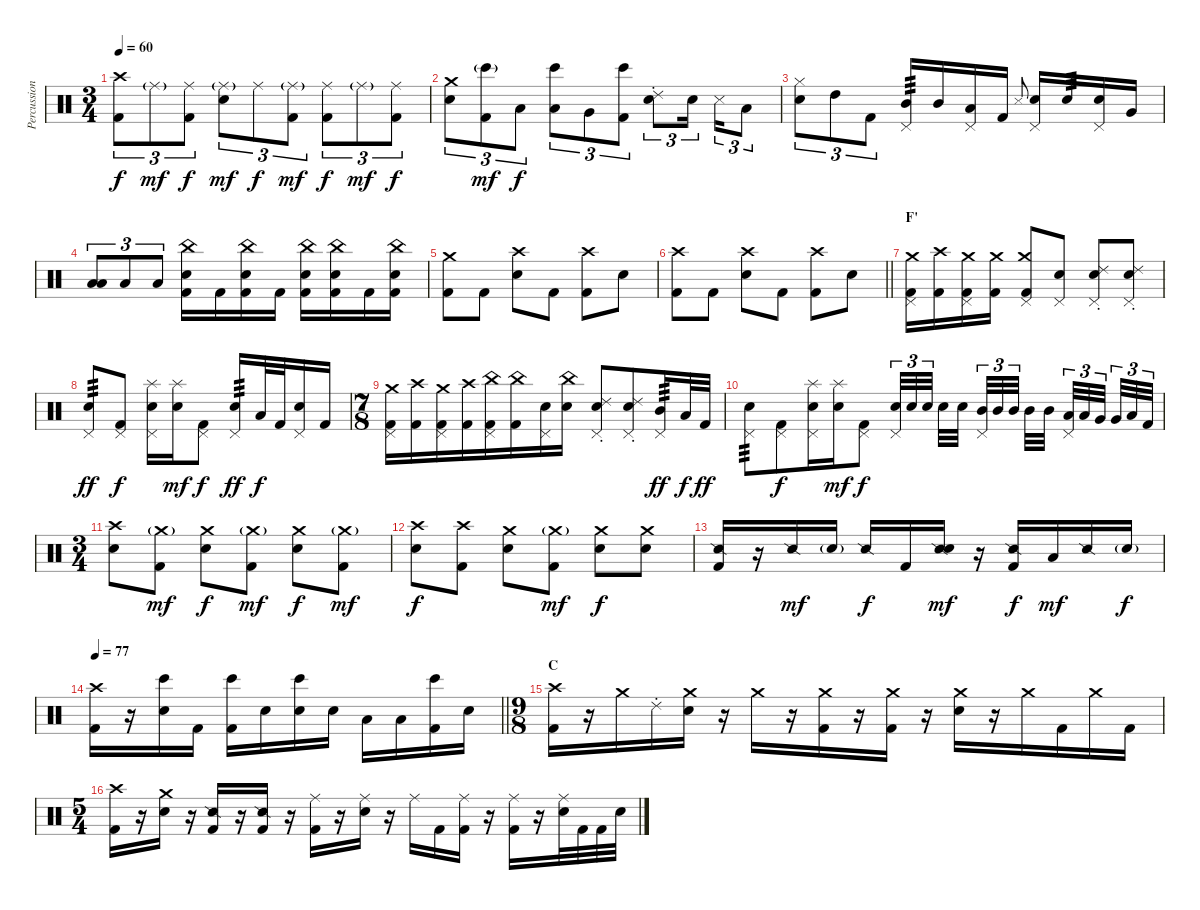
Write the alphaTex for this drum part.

\track ("Percussion" "Percussion") {instrument percussion}
\staff {score}
\articulation defaults
\ts (3 4)
\tempo 60
\clef neutral
\ks c
("Crash high (hit)" "Kick (hit) 2").8{tu (3 2) dy f} "Ride (middle)"{g}.8{tu (3 2) dy mf} ("Ride (middle)" "Kick (hit) 2").8{tu (3 2) dy f} ("Ride (middle)"{g} "Snare (hit) 2").8{tu (3 2) dy mf} "Ride (middle)".8{tu (3 2) dy f} ("Ride (middle)"{g} "Kick (hit) 2").8{tu (3 2) dy mf} ("Ride (middle)" "Kick (hit) 2").8{tu (3 2) dy f} "Ride (middle)"{g}.8{tu (3 2) dy mf} ("Ride (middle)" "Kick (hit) 2").8{tu (3 2) dy f} |
("Crash medium (hit)" "Snare (hit) 2").8{tu (3 2)} ("Bongo High (hit)"{g} "Kick (hit) 2").8{tu (3 2) dy mf} "Low Tom (hit)".8{tu (3 2) dy f} ("Bongo High (hit)" "Low Tom (hit)").8{tu (3 2)} "Very Low Tom (hit)".8{tu (3 2)} ("Bongo High (hit)" "Kick (hit) 2").8{tu (3 2)} ("Ride (choke) 2" "Snare (hit) 2").8{tu (3 2)} "Snare (hit) 2".16{tu (3 2) beam splitsecondary} "Metronome (hit)".16{tu (3 2)} "Low Tom (hit)".8{tu (3 2)} |
("Hi-Hat (closed)" "Snare (hit) 2").8{tu (3 2)} "High Tom (hit)".8{tu (3 2)} "Kick (hit) 2".8{tu (3 2)} ("Pedal Hi-Hat (hit)" "Mid Tom (hit)").16{tp 3} "Mid Tom (hit)".16 ("Pedal Hi-Hat (hit)" "Low Tom (hit)").16 "Kick (hit) 2".16 "Metronome (hit)".8{gr onbeat} ("Pedal Hi-Hat (hit)" "Snare (hit) 2").16 "Snare (hit) 2".16{tp 3} ("Pedal Hi-Hat (hit)" "Snare (hit) 2").16 "Very Low Tom (hit)".16 |
("Low Floor Tom (hit)" "Low Floor Tom (hit)").8{tu (3 2) bu 480} "Low Floor Tom (hit)".8{tu (3 2)} "Low Floor Tom (hit)".8{tu (3 2)} ("China (hit)" "Snare (hit) 2" "Kick (hit) 2").16 "Kick (hit) 2".16 ("China (hit)" "Snare (hit) 2" "Kick (hit) 2").16 "Kick (hit) 2".16 ("China (hit)" "Snare (hit) 2" "Kick (hit) 2").16 ("China (hit)" "Snare (hit) 2" "Kick (hit) 2").16 "Kick (hit) 2".16 ("China (hit)" "Snare (hit) 2" "Kick (hit) 2").16 |
("Crash medium (hit)" "Kick (hit) 2").8 "Kick (hit) 2".8 ("Crash high (hit)" "Snare (hit) 2").8 "Kick (hit) 2".8 ("Crash high (hit)" "Kick (hit) 2").8 "Snare (hit) 2".8 |
\barLineRight lightlight
("Crash high (hit)" "Kick (hit) 2").8 "Kick (hit) 2".8 ("Crash high (hit)" "Snare (hit) 2").8 "Kick (hit) 2".8 ("Crash high (hit)" "Kick (hit) 2").8 "Snare (hit) 2".8 |
\section ("" "F'")
("Crash medium (hit)" "Pedal Hi-Hat (hit)" "Kick (hit) 2").16 ("Crash high (hit)" "Kick (hit) 2").16 ("Crash medium (hit)" "Pedal Hi-Hat (hit)" "Kick (hit) 2").16 ("Crash medium (hit)" "Kick (hit) 2").16 ("Crash medium (hit)" "Pedal Hi-Hat (hit)" "Kick (hit) 2").8 ("Pedal Hi-Hat (hit)" "Snare (hit) 2").8 ("Ride (choke) 2" "Pedal Hi-Hat (hit)" "Snare (hit) 2").8 ("Ride (choke) 2" "Pedal Hi-Hat (hit)" "Snare (hit) 2").8 |
("Pedal Hi-Hat (hit)" "Snare (hit) 2").8{tp 3 dy ff} ("Pedal Hi-Hat (hit)" "Kick (hit) 2").8{dy f} ("Splash (hit)" "Pedal Hi-Hat (hit)" "Snare (hit) 2").16 ("Splash (hit)" "Snare (hit) 2").16{dy mf} ("Pedal Hi-Hat (hit)" "Kick (hit) 2").8{dy f} ("Pedal Hi-Hat (hit)" "Snare (hit) 2").16{tp 3 dy ff} "Low Tom (hit)".32{dy f} "Kick (hit) 2".32 ("Pedal Hi-Hat (hit)" "Snare (hit) 2").16 "Kick (hit) 2".16 |
\ts (7 8)
("Crash medium (hit)" "Pedal Hi-Hat (hit)" "Kick (hit) 2").16 ("Crash high (hit)" "Kick (hit) 2").16 ("Crash medium (hit)" "Pedal Hi-Hat (hit)" "Kick (hit) 2").16 ("Crash high (hit)" "Kick (hit) 2").16 ("China (hit)" "Pedal Hi-Hat (hit)" "Kick (hit) 2").16 ("China (hit)" "Kick (hit) 2").16 ("Pedal Hi-Hat (hit)" "Snare (hit) 2").16 ("China (hit)" "Snare (hit) 2").16 ("Ride (choke) 2" "Pedal Hi-Hat (hit)" "Snare (hit) 2").8 ("Ride (choke) 2" "Pedal Hi-Hat (hit)" "Snare (hit) 2").8 ("Pedal Hi-Hat (hit)" "Mid Tom (hit)").16{tp 3 dy ff} "Low Tom (hit)".32{dy f} "Kick (hit) 2".32{dy ff} |
("Pedal Hi-Hat (hit)" "Snare (hit) 2").8{tp 3} ("Pedal Hi-Hat (hit)" "Kick (hit) 2").8{dy f} ("Splash (hit)" "Pedal Hi-Hat (hit)" "Snare (hit) 2").16 ("Splash (hit)" "Snare (hit) 2").16{dy mf} ("Pedal Hi-Hat (hit)" "Kick (hit) 2").8{dy f} ("Pedal Hi-Hat (hit)" "Snare (hit) 2").32{tu (3 2)} "Snare (hit) 2".32{tu (3 2)} "Snare (hit) 2".32{tu (3 2) beam splitsecondary} "Snare (hit) 2".32 "Snare (hit) 2".32 ("Pedal Hi-Hat (hit)" "Mid Tom (hit)").32{tu (3 2)} "Mid Tom (hit)".32{tu (3 2)} "Mid Tom (hit)".32{tu (3 2) beam splitsecondary} "Mid Tom (hit)".32 "Mid Tom (hit)".32 ("Pedal Hi-Hat (hit)" "Low Tom (hit)").32{tu (3 2)} "Low Tom (hit)".32{tu (3 2)} "Very Low Tom (hit)".32{tu (3 2) beam splitsecondary} "Very Low Tom (hit)".32{tu (3 2)} "Low Floor Tom (hit)".32{tu (3 2)} "Kick (hit) 2".32{tu (3 2)} |
\ts (3 4)
("Crash high (hit)" "Snare (hit) 2").8 ("Crash medium (hit)"{g} "Kick (hit) 2").8{dy mf} ("Crash medium (hit)" "Snare (hit) 2").8{dy f} ("Crash medium (hit)"{g} "Kick (hit) 2").8{dy mf} ("Crash medium (hit)" "Snare (hit) 2").8{dy f} ("Crash medium (hit)"{g} "Kick (hit) 2").8{dy mf} |
("Crash high (hit)" "Snare (hit) 2").8{dy f} ("Crash high (hit)" "Kick (hit) 2").8 ("Crash medium (hit)" "Snare (hit) 2").8 ("Crash medium (hit)"{g} "Kick (hit) 2").8{dy mf} ("Crash medium (hit)" "Snare (hit) 2").8{dy f} ("Crash medium (hit)" "Snare (hit) 2").8 |
("Snare (side stick) 2" "Kick (hit) 2").16 r.16 "Snare (side stick) 2".16{dy mf} "Snare (hit) 2"{g}.16 "Snare (side stick) 2".16{dy f} "Kick (hit) 2".16 ("Snare (side stick) 2" "Snare (hit) 2").16{dy mf} r.16 ("Snare (side stick) 2" "Kick (hit) 2").16{dy f} "Low Tom (hit)".16{dy mf} "Snare (side stick) 2".16 "Snare (hit) 2"{g}.16{dy f} |
\tempo 77
\barLineRight lightlight
("Crash high (hit)" "Kick (hit) 2").16 r.16 ("Bongo High (hit)" "Snare (hit) 2").16 "Kick (hit) 2".16 ("Bongo High (hit)" "Kick (hit) 2").16 "Snare (hit) 2".16 ("Bongo High (hit)" "Snare (hit) 2").16 "Snare (hit) 2".16 "Low Tom (hit)".16 "Low Tom (hit)".16 ("Bongo High (hit)" "Kick (hit) 2").16 "Snare (hit) 2".16 |
\ts (9 8)
\section ("" "C")
("Crash high (hit)" "Kick (hit) 2").16 r.16 "Crash medium (hit)".16 "Ride (choke) 2".16 ("Crash medium (hit)" "Snare (hit) 2").16 r.16 "Crash medium (hit)".16 r.16 ("Crash medium (hit)" "Kick (hit) 2").16 r.16 ("Crash medium (hit)" "Kick (hit) 2").16 r.16 ("Crash medium (hit)" "Snare (hit) 2").16 r.16 "Crash medium (hit)".16 "Kick (hit) 2".16 "Crash medium (hit)".16 "Kick (hit) 2".16 |
\ts (5 4)
("Crash high (hit)" "Kick (hit) 2").16 r.16 ("Crash medium (hit)" "Snare (hit) 2").16 r.16 ("Snare (side stick) 2" "Kick (hit) 2").16 r.16 ("Snare (side stick) 2" "Kick (hit) 2").16 r.16 ("Ride (middle)" "Kick (hit) 2").16 r.16 ("Ride (middle)" "Snare (hit) 2").16 r.16 "Ride (middle)".16 "Kick (hit) 2".16 ("Ride (middle)" "Kick (hit) 2").16 r.16 ("Ride (middle)" "Kick (hit) 2").16 r.16 ("Ride (middle)" "Snare (hit) 2").32 "Kick (hit) 2".32 "Kick (hit) 2".32 "Snare (hit) 2".32
